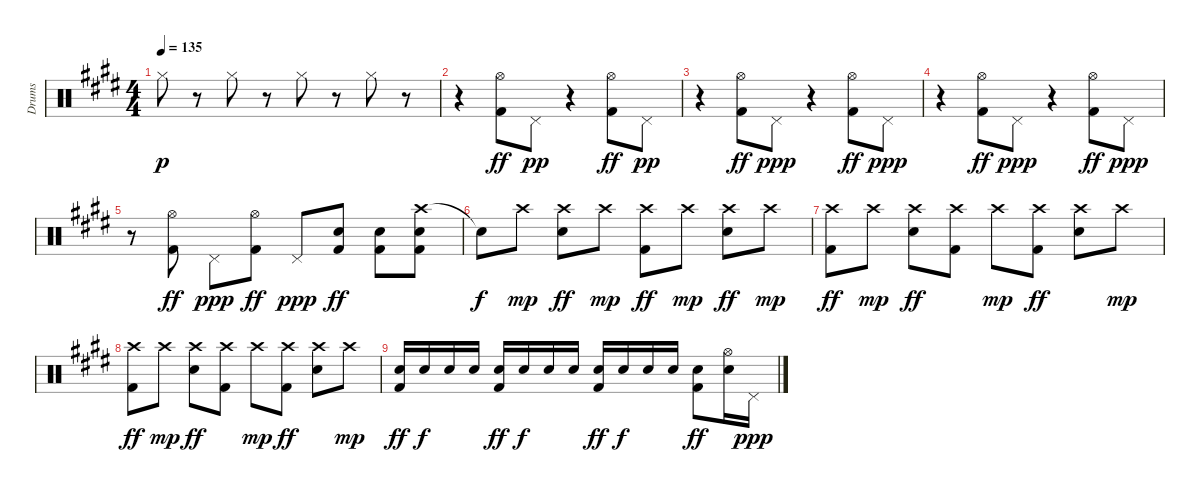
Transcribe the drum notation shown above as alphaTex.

\track ("Drums" "Drums") {instrument percussion}
\staff {score}
\articulation defaults
\ts (4 4)
\tempo 135
\clef neutral
\ks e "Hi-Hat (closed)".8{dy p}
r.8 "Hi-Hat (closed)".8 r.8 "Hi-Hat (closed)".8 r.8 "Hi-Hat (closed)".8 r.8 |
r.4 ("Hi-Hat (open)" "Kick (hit) 2").8{dy ff} "Pedal Hi-Hat (hit)".8{dy pp} r.4 ("Hi-Hat (open)" "Kick (hit) 2").8{dy ff} "Pedal Hi-Hat (hit)".8{dy pp} |
r.4 ("Hi-Hat (open)" "Kick (hit) 2").8{dy ff} "Pedal Hi-Hat (hit)".8{dy ppp} r.4 ("Hi-Hat (open)" "Kick (hit) 2").8{dy ff} "Pedal Hi-Hat (hit)".8{dy ppp} |
r.4 ("Hi-Hat (open)" "Kick (hit) 2").8{dy ff} "Pedal Hi-Hat (hit)".8{dy ppp} r.4 ("Hi-Hat (open)" "Kick (hit) 2").8{dy ff} "Pedal Hi-Hat (hit)".8{dy ppp} |
r.8 ("Hi-Hat (open)" "Kick (hit) 2").8{dy ff} "Pedal Hi-Hat (hit)".8{dy ppp} ("Hi-Hat (open)" "Kick (hit) 2").8{dy ff} "Pedal Hi-Hat (hit)".8{dy ppp} ("Snare (hit) 2" "Kick (hit) 2").8{dy ff} ("Snare (hit) 2" "Kick (hit) 2").8 ("Crash high (hit)" "Snare (hit) 2" "Kick (hit) 2").8 |
"Snare (hit)"{t}.8{dy f} "Crash high (hit)".8{dy mp} ("Crash high (hit)" "Snare (hit) 2").8{dy ff} "Crash high (hit)".8{dy mp} ("Crash high (hit)" "Kick (hit) 2").8{dy ff} "Crash high (hit)".8{dy mp} ("Crash high (hit)" "Snare (hit) 2").8{dy ff} "Crash high (hit)".8{dy mp} |
("Crash high (hit)" "Kick (hit) 2").8{dy ff} "Crash high (hit)".8{dy mp} ("Crash high (hit)" "Snare (hit) 2").8{dy ff} ("Crash high (hit)" "Kick (hit) 2").8 "Crash high (hit)".8{dy mp} ("Crash high (hit)" "Kick (hit) 2").8{dy ff} ("Crash high (hit)" "Snare (hit) 2").8 "Crash high (hit)".8{dy mp} |
("Crash high (hit)" "Kick (hit) 2").8{dy ff} "Crash high (hit)".8{dy mp} ("Crash high (hit)" "Snare (hit) 2").8{dy ff} ("Crash high (hit)" "Kick (hit) 2").8 "Crash high (hit)".8{dy mp} ("Crash high (hit)" "Kick (hit) 2").8{dy ff} ("Crash high (hit)" "Snare (hit) 2").8 "Crash high (hit)".8{dy mp} |
("Snare (hit) 2" "Kick (hit) 2").16{dy ff} "Snare (hit) 2".16{dy f} "Snare (hit) 2".16 "Snare (hit) 2".16 ("Snare (hit) 2" "Kick (hit) 2").16{dy ff} "Snare (hit) 2".16{dy f} "Snare (hit) 2".16 "Snare (hit) 2".16 ("Snare (hit) 2" "Kick (hit) 2").16{dy ff} "Snare (hit) 2".16{dy f} "Snare (hit) 2".16 "Snare (hit) 2".16 ("Snare (hit) 2" "Kick (hit) 2").8{dy ff} ("Hi-Hat (open)" "Snare (hit) 2").16 "Pedal Hi-Hat (hit)".16{dy ppp}
